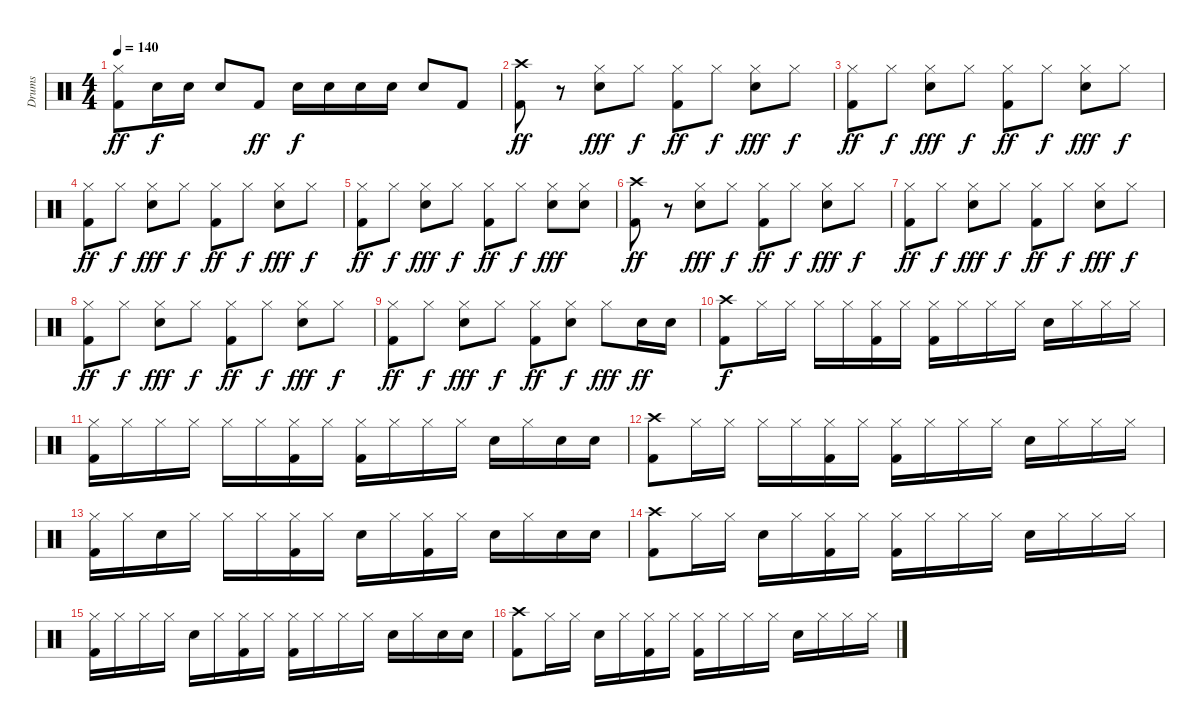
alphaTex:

\track ("Drums" "Drums") {instrument percussion}
\staff {score}
\articulation defaults
\ts (4 4)
\tempo 140
\clef neutral
\ks c
("Hi-Hat (closed)" "Kick (hit) 2").8{dy ff} "Snare (hit) 2".16{dy f} "Snare (hit) 2".16 "Snare (hit) 2".8 "Kick (hit) 2".8{dy ff} "Snare (hit) 2".16{dy f} "Snare (hit) 2".16 "Snare (hit) 2".16 "Snare (hit) 2".16 "Snare (hit) 2".8 "Kick (hit) 2".8 |
("Crash high (hit)" "Kick (hit) 2").8{dy ff} r.8 ("Hi-Hat (closed)" "Snare (hit) 2").8{dy fff} "Hi-Hat (closed)".8{dy f} ("Hi-Hat (closed)" "Kick (hit) 2").8{dy ff} "Hi-Hat (closed)".8{dy f} ("Hi-Hat (closed)" "Snare (hit) 2").8{dy fff} "Hi-Hat (closed)".8{dy f} |
("Hi-Hat (closed)" "Kick (hit) 2").8{dy ff} "Hi-Hat (closed)".8{dy f} ("Hi-Hat (closed)" "Snare (hit) 2").8{dy fff} "Hi-Hat (closed)".8{dy f} ("Hi-Hat (closed)" "Kick (hit) 2").8{dy ff} "Hi-Hat (closed)".8{dy f} ("Hi-Hat (closed)" "Snare (hit) 2").8{dy fff} "Hi-Hat (closed)".8{dy f} |
("Hi-Hat (closed)" "Kick (hit) 2").8{dy ff} "Hi-Hat (closed)".8{dy f} ("Hi-Hat (closed)" "Snare (hit) 2").8{dy fff} "Hi-Hat (closed)".8{dy f} ("Hi-Hat (closed)" "Kick (hit) 2").8{dy ff} "Hi-Hat (closed)".8{dy f} ("Hi-Hat (closed)" "Snare (hit) 2").8{dy fff} "Hi-Hat (closed)".8{dy f} |
("Hi-Hat (closed)" "Kick (hit) 2").8{dy ff} "Hi-Hat (closed)".8{dy f} ("Hi-Hat (closed)" "Snare (hit) 2").8{dy fff} "Hi-Hat (closed)".8{dy f} ("Hi-Hat (closed)" "Kick (hit) 2").8{dy ff} "Hi-Hat (closed)".8{dy f} ("Hi-Hat (closed)" "Snare (hit) 2").8{dy fff} ("Hi-Hat (closed)" "Snare (hit) 2").8 |
("Crash high (hit)" "Kick (hit) 2").8{dy ff} r.8 ("Hi-Hat (closed)" "Snare (hit) 2").8{dy fff} "Hi-Hat (closed)".8{dy f} ("Hi-Hat (closed)" "Kick (hit) 2").8{dy ff} "Hi-Hat (closed)".8{dy f} ("Hi-Hat (closed)" "Snare (hit) 2").8{dy fff} "Hi-Hat (closed)".8{dy f} |
("Hi-Hat (closed)" "Kick (hit) 2").8{dy ff} "Hi-Hat (closed)".8{dy f} ("Hi-Hat (closed)" "Snare (hit) 2").8{dy fff} "Hi-Hat (closed)".8{dy f} ("Hi-Hat (closed)" "Kick (hit) 2").8{dy ff} "Hi-Hat (closed)".8{dy f} ("Hi-Hat (closed)" "Snare (hit) 2").8{dy fff} "Hi-Hat (closed)".8{dy f} |
("Hi-Hat (closed)" "Kick (hit) 2").8{dy ff} "Hi-Hat (closed)".8{dy f} ("Hi-Hat (closed)" "Snare (hit) 2").8{dy fff} "Hi-Hat (closed)".8{dy f} ("Hi-Hat (closed)" "Kick (hit) 2").8{dy ff} "Hi-Hat (closed)".8{dy f} ("Hi-Hat (closed)" "Snare (hit) 2").8{dy fff} "Hi-Hat (closed)".8{dy f} |
("Hi-Hat (closed)" "Kick (hit) 2").8{dy ff} "Hi-Hat (closed)".8{dy f} ("Hi-Hat (closed)" "Snare (hit) 2").8{dy fff} "Hi-Hat (closed)".8{dy f} ("Hi-Hat (closed)" "Kick (hit) 2").8{dy ff} ("Hi-Hat (closed)" "Snare (hit) 2").8{dy f} "Hi-Hat (closed)".8{dy fff} "Snare (hit) 2".16{dy ff} "Snare (hit) 2".16 |
("Crash high (hit)" "Kick (hit) 2").8{dy f} "Hi-Hat (closed)".16 "Hi-Hat (closed)".16 "Hi-Hat (closed)".16 "Hi-Hat (closed)".16 ("Hi-Hat (closed)" "Kick (hit) 2").16 "Hi-Hat (closed)".16 ("Hi-Hat (closed)" "Kick (hit) 2").16 "Hi-Hat (closed)".16 "Hi-Hat (closed)".16 "Hi-Hat (closed)".16 "Snare (hit) 2".16 "Hi-Hat (closed)".16 "Hi-Hat (closed)".16 "Hi-Hat (closed)".16 |
("Hi-Hat (closed)" "Kick (hit) 2").16 "Hi-Hat (closed)".16 "Hi-Hat (closed)".16 "Hi-Hat (closed)".16 "Hi-Hat (closed)".16 "Hi-Hat (closed)".16 ("Hi-Hat (closed)" "Kick (hit) 2").16 "Hi-Hat (closed)".16 ("Hi-Hat (closed)" "Kick (hit) 2").16 "Hi-Hat (closed)".16 "Hi-Hat (closed)".16 "Hi-Hat (closed)".16 "Snare (hit) 2".16 "Hi-Hat (closed)".16 "Snare (hit) 2".16 "Snare (hit) 2".16 |
("Crash high (hit)" "Kick (hit) 2").8 "Hi-Hat (closed)".16 "Hi-Hat (closed)".16 "Hi-Hat (closed)".16 "Hi-Hat (closed)".16 ("Hi-Hat (closed)" "Kick (hit) 2").16 "Hi-Hat (closed)".16 ("Hi-Hat (closed)" "Kick (hit) 2").16 "Hi-Hat (closed)".16 "Hi-Hat (closed)".16 "Hi-Hat (closed)".16 "Snare (hit) 2".16 "Hi-Hat (closed)".16 "Hi-Hat (closed)".16 "Hi-Hat (closed)".16 |
("Hi-Hat (closed)" "Kick (hit) 2").16 "Hi-Hat (closed)".16 "Snare (hit) 2".16 "Hi-Hat (closed)".16 "Hi-Hat (closed)".16 "Hi-Hat (closed)".16 ("Hi-Hat (closed)" "Kick (hit) 2").16 "Hi-Hat (closed)".16 "Snare (hit) 2".16 "Hi-Hat (closed)".16 ("Hi-Hat (closed)" "Kick (hit) 2").16 "Hi-Hat (closed)".16 "Snare (hit) 2".16 "Hi-Hat (closed)".16 "Snare (hit) 2".16 "Snare (hit) 2".16 |
("Crash high (hit)" "Kick (hit) 2").8 "Hi-Hat (closed)".16 "Hi-Hat (closed)".16 "Snare (hit) 2".16 "Hi-Hat (closed)".16 ("Hi-Hat (closed)" "Kick (hit) 2").16 "Hi-Hat (closed)".16 ("Hi-Hat (closed)" "Kick (hit) 2").16 "Hi-Hat (closed)".16 "Hi-Hat (closed)".16 "Hi-Hat (closed)".16 "Snare (hit) 2".16 "Hi-Hat (closed)".16 "Hi-Hat (closed)".16 "Hi-Hat (closed)".16 |
("Hi-Hat (closed)" "Kick (hit) 2").16 "Hi-Hat (closed)".16 "Hi-Hat (closed)".16 "Hi-Hat (closed)".16 "Snare (hit) 2".16 "Hi-Hat (closed)".16 ("Hi-Hat (closed)" "Kick (hit) 2").16 "Hi-Hat (closed)".16 ("Hi-Hat (closed)" "Kick (hit) 2").16 "Hi-Hat (closed)".16 "Hi-Hat (closed)".16 "Hi-Hat (closed)".16 "Snare (hit) 2".16 "Hi-Hat (closed)".16 "Snare (hit) 2".16 "Snare (hit) 2".16 |
("Crash high (hit)" "Kick (hit) 2").8 "Hi-Hat (closed)".16 "Hi-Hat (closed)".16 "Snare (hit) 2".16 "Hi-Hat (closed)".16 ("Hi-Hat (closed)" "Kick (hit) 2").16 "Hi-Hat (closed)".16 ("Hi-Hat (closed)" "Kick (hit) 2").16 "Hi-Hat (closed)".16 "Hi-Hat (closed)".16 "Hi-Hat (closed)".16 "Snare (hit) 2".16 "Hi-Hat (closed)".16 "Hi-Hat (closed)".16 "Hi-Hat (closed)".16
